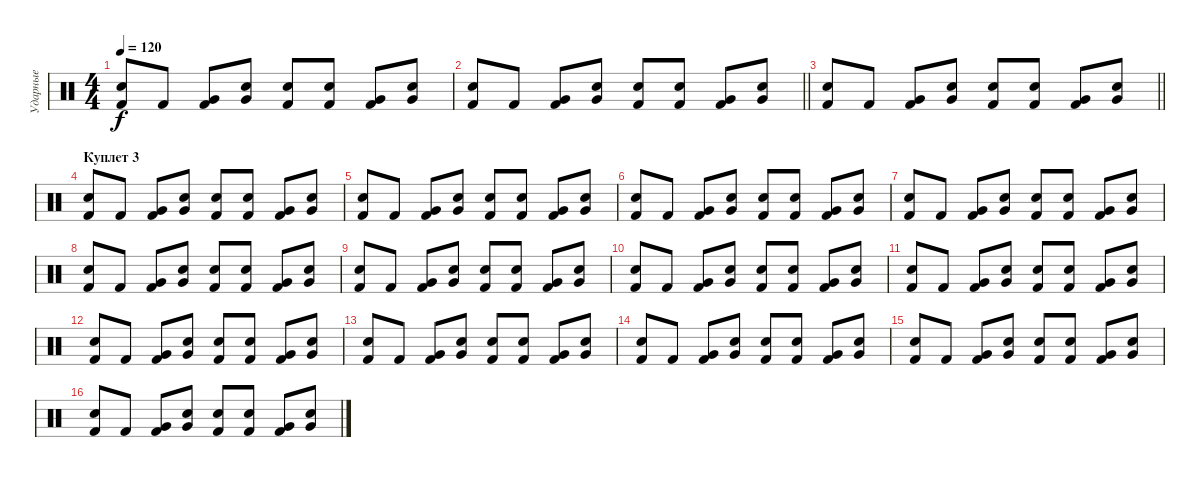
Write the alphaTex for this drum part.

\track ("Ударные" "Ударные") {instrument percussion}
\staff {score}
\articulation defaults
\ts (4 4)
\tempo 120
\clef neutral
\ks c
("Snare (hit) 2" "Kick (hit) 2").8{dy f} "Kick (hit) 2".8 ("Very Low Tom (hit)" "Kick (hit) 2").8 ("Very Low Tom (hit)" "Snare (hit) 2").8 ("Snare (hit) 2" "Kick (hit) 2").8 ("Snare (hit) 2" "Kick (hit) 2").8 ("Very Low Tom (hit)" "Kick (hit) 2").8 ("Very Low Tom (hit)" "Snare (hit) 2").8 |
\barLineRight lightlight
("Snare (hit) 2" "Kick (hit) 2").8 "Kick (hit) 2".8 ("Very Low Tom (hit)" "Kick (hit) 2").8 ("Very Low Tom (hit)" "Snare (hit) 2").8 ("Snare (hit) 2" "Kick (hit) 2").8 ("Snare (hit) 2" "Kick (hit) 2").8 ("Very Low Tom (hit)" "Kick (hit) 2").8 ("Very Low Tom (hit)" "Snare (hit) 2").8 |
\barLineRight lightlight
("Snare (hit) 2" "Kick (hit) 2").8 "Kick (hit) 2".8 ("Very Low Tom (hit)" "Kick (hit) 2").8 ("Very Low Tom (hit)" "Snare (hit) 2").8 ("Snare (hit) 2" "Kick (hit) 2").8 ("Snare (hit) 2" "Kick (hit) 2").8 ("Very Low Tom (hit)" "Kick (hit) 2").8 ("Very Low Tom (hit)" "Snare (hit) 2").8 |
\section ("" "Куплет 3")
("Snare (hit) 2" "Kick (hit) 2").8 "Kick (hit) 2".8 ("Very Low Tom (hit)" "Kick (hit) 2").8 ("Very Low Tom (hit)" "Snare (hit) 2").8 ("Snare (hit) 2" "Kick (hit) 2").8 ("Snare (hit) 2" "Kick (hit) 2").8 ("Very Low Tom (hit)" "Kick (hit) 2").8 ("Very Low Tom (hit)" "Snare (hit) 2").8 |
("Snare (hit) 2" "Kick (hit) 2").8 "Kick (hit) 2".8 ("Very Low Tom (hit)" "Kick (hit) 2").8 ("Very Low Tom (hit)" "Snare (hit) 2").8 ("Snare (hit) 2" "Kick (hit) 2").8 ("Snare (hit) 2" "Kick (hit) 2").8 ("Very Low Tom (hit)" "Kick (hit) 2").8 ("Very Low Tom (hit)" "Snare (hit) 2").8 |
("Snare (hit) 2" "Kick (hit) 2").8 "Kick (hit) 2".8 ("Very Low Tom (hit)" "Kick (hit) 2").8 ("Very Low Tom (hit)" "Snare (hit) 2").8 ("Snare (hit) 2" "Kick (hit) 2").8 ("Snare (hit) 2" "Kick (hit) 2").8 ("Very Low Tom (hit)" "Kick (hit) 2").8 ("Very Low Tom (hit)" "Snare (hit) 2").8 |
("Snare (hit) 2" "Kick (hit) 2").8 "Kick (hit) 2".8 ("Very Low Tom (hit)" "Kick (hit) 2").8 ("Very Low Tom (hit)" "Snare (hit) 2").8 ("Snare (hit) 2" "Kick (hit) 2").8 ("Snare (hit) 2" "Kick (hit) 2").8 ("Very Low Tom (hit)" "Kick (hit) 2").8 ("Very Low Tom (hit)" "Snare (hit) 2").8 |
("Snare (hit) 2" "Kick (hit) 2").8 "Kick (hit) 2".8 ("Very Low Tom (hit)" "Kick (hit) 2").8 ("Very Low Tom (hit)" "Snare (hit) 2").8 ("Snare (hit) 2" "Kick (hit) 2").8 ("Snare (hit) 2" "Kick (hit) 2").8 ("Very Low Tom (hit)" "Kick (hit) 2").8 ("Very Low Tom (hit)" "Snare (hit) 2").8 |
("Snare (hit) 2" "Kick (hit) 2").8 "Kick (hit) 2".8 ("Very Low Tom (hit)" "Kick (hit) 2").8 ("Very Low Tom (hit)" "Snare (hit) 2").8 ("Snare (hit) 2" "Kick (hit) 2").8 ("Snare (hit) 2" "Kick (hit) 2").8 ("Very Low Tom (hit)" "Kick (hit) 2").8 ("Very Low Tom (hit)" "Snare (hit) 2").8 |
("Snare (hit) 2" "Kick (hit) 2").8 "Kick (hit) 2".8 ("Very Low Tom (hit)" "Kick (hit) 2").8 ("Very Low Tom (hit)" "Snare (hit) 2").8 ("Snare (hit) 2" "Kick (hit) 2").8 ("Snare (hit) 2" "Kick (hit) 2").8 ("Very Low Tom (hit)" "Kick (hit) 2").8 ("Very Low Tom (hit)" "Snare (hit) 2").8 |
("Snare (hit) 2" "Kick (hit) 2").8 "Kick (hit) 2".8 ("Very Low Tom (hit)" "Kick (hit) 2").8 ("Very Low Tom (hit)" "Snare (hit) 2").8 ("Snare (hit) 2" "Kick (hit) 2").8 ("Snare (hit) 2" "Kick (hit) 2").8 ("Very Low Tom (hit)" "Kick (hit) 2").8 ("Very Low Tom (hit)" "Snare (hit) 2").8 |
("Snare (hit) 2" "Kick (hit) 2").8 "Kick (hit) 2".8 ("Very Low Tom (hit)" "Kick (hit) 2").8 ("Very Low Tom (hit)" "Snare (hit) 2").8 ("Snare (hit) 2" "Kick (hit) 2").8 ("Snare (hit) 2" "Kick (hit) 2").8 ("Very Low Tom (hit)" "Kick (hit) 2").8 ("Very Low Tom (hit)" "Snare (hit) 2").8 |
("Snare (hit) 2" "Kick (hit) 2").8 "Kick (hit) 2".8 ("Very Low Tom (hit)" "Kick (hit) 2").8 ("Very Low Tom (hit)" "Snare (hit) 2").8 ("Snare (hit) 2" "Kick (hit) 2").8 ("Snare (hit) 2" "Kick (hit) 2").8 ("Very Low Tom (hit)" "Kick (hit) 2").8 ("Very Low Tom (hit)" "Snare (hit) 2").8 |
("Snare (hit) 2" "Kick (hit) 2").8 "Kick (hit) 2".8 ("Very Low Tom (hit)" "Kick (hit) 2").8 ("Very Low Tom (hit)" "Snare (hit) 2").8 ("Snare (hit) 2" "Kick (hit) 2").8 ("Snare (hit) 2" "Kick (hit) 2").8 ("Very Low Tom (hit)" "Kick (hit) 2").8 ("Very Low Tom (hit)" "Snare (hit) 2").8 |
("Snare (hit) 2" "Kick (hit) 2").8 "Kick (hit) 2".8 ("Very Low Tom (hit)" "Kick (hit) 2").8 ("Very Low Tom (hit)" "Snare (hit) 2").8 ("Snare (hit) 2" "Kick (hit) 2").8 ("Snare (hit) 2" "Kick (hit) 2").8 ("Very Low Tom (hit)" "Kick (hit) 2").8 ("Very Low Tom (hit)" "Snare (hit) 2").8 |
("Snare (hit) 2" "Kick (hit) 2").8 "Kick (hit) 2".8 ("Very Low Tom (hit)" "Kick (hit) 2").8 ("Very Low Tom (hit)" "Snare (hit) 2").8 ("Snare (hit) 2" "Kick (hit) 2").8 ("Snare (hit) 2" "Kick (hit) 2").8 ("Very Low Tom (hit)" "Kick (hit) 2").8 ("Very Low Tom (hit)" "Snare (hit) 2").8
